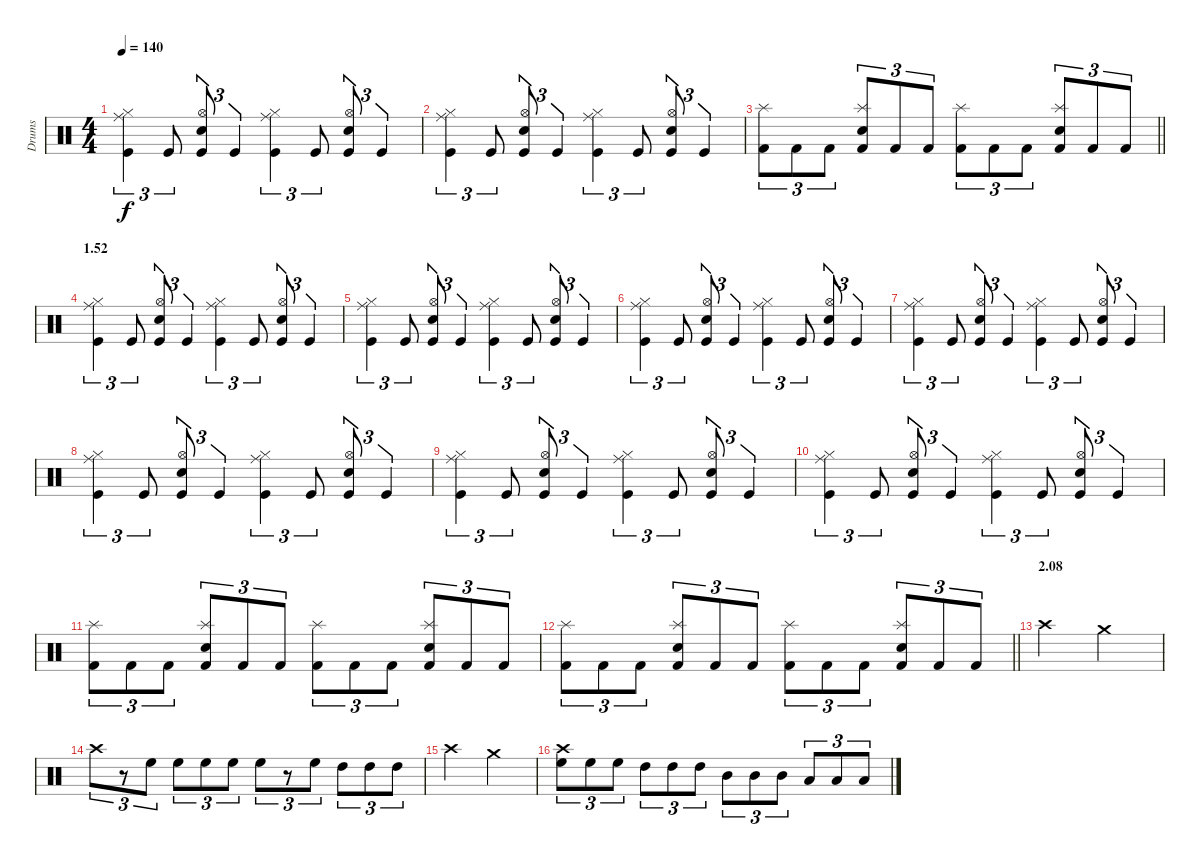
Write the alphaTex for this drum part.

\track ("Drums" "Drums") {instrument percussion}
\staff {score}
\articulation defaults
\ts (4 4)
\tempo 140
\clef neutral
\ks c
("Hi-Hat (closed)" "Ride (middle)" "Kick (hit)").4{tu (3 2) dy f} "Kick (hit)".8{tu (3 2)} ("Hi-Hat (open)" "Electric Snare (hit)" "Kick (hit)").8{tu (3 2)} "Kick (hit)".4{tu (3 2)} ("Hi-Hat (closed)" "Ride (middle)" "Kick (hit)").4{tu (3 2)} "Kick (hit)".8{tu (3 2)} ("Hi-Hat (open)" "Electric Snare (hit)" "Kick (hit)").8{tu (3 2)} "Kick (hit)".4{tu (3 2)} |
("Hi-Hat (closed)" "Ride (middle)" "Kick (hit)").4{tu (3 2)} "Kick (hit)".8{tu (3 2)} ("Hi-Hat (open)" "Electric Snare (hit)" "Kick (hit)").8{tu (3 2)} "Kick (hit)".4{tu (3 2)} ("Hi-Hat (closed)" "Ride (middle)" "Kick (hit)").4{tu (3 2)} "Kick (hit)".8{tu (3 2)} ("Hi-Hat (open)" "Electric Snare (hit)" "Kick (hit)").8{tu (3 2)} "Kick (hit)".4{tu (3 2)} |
\barLineRight lightlight
("Splash (hit)" "Kick (hit) 2").8{tu (3 2)} "Kick (hit) 2".8{tu (3 2)} "Kick (hit) 2".8{tu (3 2)} ("Splash (hit)" "Electric Snare (hit)" "Kick (hit) 2").8{tu (3 2)} "Kick (hit) 2".8{tu (3 2)} "Kick (hit) 2".8{tu (3 2)} ("Splash (hit)" "Kick (hit) 2").8{tu (3 2)} "Kick (hit) 2".8{tu (3 2)} "Kick (hit) 2".8{tu (3 2)} ("Splash (hit)" "Electric Snare (hit)" "Kick (hit) 2").8{tu (3 2)} "Kick (hit) 2".8{tu (3 2)} "Kick (hit) 2".8{tu (3 2)} |
\section ("" "1.52")
("Hi-Hat (closed)" "Ride (middle)" "Kick (hit)").4{tu (3 2)} "Kick (hit)".8{tu (3 2)} ("Hi-Hat (open)" "Electric Snare (hit)" "Kick (hit)").8{tu (3 2)} "Kick (hit)".4{tu (3 2)} ("Hi-Hat (closed)" "Ride (middle)" "Kick (hit)").4{tu (3 2)} "Kick (hit)".8{tu (3 2)} ("Hi-Hat (open)" "Electric Snare (hit)" "Kick (hit)").8{tu (3 2)} "Kick (hit)".4{tu (3 2)} |
("Hi-Hat (closed)" "Ride (middle)" "Kick (hit)").4{tu (3 2)} "Kick (hit)".8{tu (3 2)} ("Hi-Hat (open)" "Electric Snare (hit)" "Kick (hit)").8{tu (3 2)} "Kick (hit)".4{tu (3 2)} ("Hi-Hat (closed)" "Ride (middle)" "Kick (hit)").4{tu (3 2)} "Kick (hit)".8{tu (3 2)} ("Hi-Hat (open)" "Electric Snare (hit)" "Kick (hit)").8{tu (3 2)} "Kick (hit)".4{tu (3 2)} |
("Hi-Hat (closed)" "Ride (middle)" "Kick (hit)").4{tu (3 2)} "Kick (hit)".8{tu (3 2)} ("Hi-Hat (open)" "Electric Snare (hit)" "Kick (hit)").8{tu (3 2)} "Kick (hit)".4{tu (3 2)} ("Hi-Hat (closed)" "Ride (middle)" "Kick (hit)").4{tu (3 2)} "Kick (hit)".8{tu (3 2)} ("Hi-Hat (open)" "Electric Snare (hit)" "Kick (hit)").8{tu (3 2)} "Kick (hit)".4{tu (3 2)} |
("Hi-Hat (closed)" "Ride (middle)" "Kick (hit)").4{tu (3 2)} "Kick (hit)".8{tu (3 2)} ("Hi-Hat (open)" "Electric Snare (hit)" "Kick (hit)").8{tu (3 2)} "Kick (hit)".4{tu (3 2)} ("Hi-Hat (closed)" "Ride (middle)" "Kick (hit)").4{tu (3 2)} "Kick (hit)".8{tu (3 2)} ("Hi-Hat (open)" "Electric Snare (hit)" "Kick (hit)").8{tu (3 2)} "Kick (hit)".4{tu (3 2)} |
("Hi-Hat (closed)" "Ride (middle)" "Kick (hit)").4{tu (3 2)} "Kick (hit)".8{tu (3 2)} ("Hi-Hat (open)" "Electric Snare (hit)" "Kick (hit)").8{tu (3 2)} "Kick (hit)".4{tu (3 2)} ("Hi-Hat (closed)" "Ride (middle)" "Kick (hit)").4{tu (3 2)} "Kick (hit)".8{tu (3 2)} ("Hi-Hat (open)" "Electric Snare (hit)" "Kick (hit)").8{tu (3 2)} "Kick (hit)".4{tu (3 2)} |
("Hi-Hat (closed)" "Ride (middle)" "Kick (hit)").4{tu (3 2)} "Kick (hit)".8{tu (3 2)} ("Hi-Hat (open)" "Electric Snare (hit)" "Kick (hit)").8{tu (3 2)} "Kick (hit)".4{tu (3 2)} ("Hi-Hat (closed)" "Ride (middle)" "Kick (hit)").4{tu (3 2)} "Kick (hit)".8{tu (3 2)} ("Hi-Hat (open)" "Electric Snare (hit)" "Kick (hit)").8{tu (3 2)} "Kick (hit)".4{tu (3 2)} |
("Hi-Hat (closed)" "Ride (middle)" "Kick (hit)").4{tu (3 2)} "Kick (hit)".8{tu (3 2)} ("Hi-Hat (open)" "Electric Snare (hit)" "Kick (hit)").8{tu (3 2)} "Kick (hit)".4{tu (3 2)} ("Hi-Hat (closed)" "Ride (middle)" "Kick (hit)").4{tu (3 2)} "Kick (hit)".8{tu (3 2)} ("Hi-Hat (open)" "Electric Snare (hit)" "Kick (hit)").8{tu (3 2)} "Kick (hit)".4{tu (3 2)} |
("Splash (hit)" "Kick (hit) 2").8{tu (3 2)} "Kick (hit) 2".8{tu (3 2)} "Kick (hit) 2".8{tu (3 2)} ("Splash (hit)" "Electric Snare (hit)" "Kick (hit) 2").8{tu (3 2)} "Kick (hit) 2".8{tu (3 2)} "Kick (hit) 2".8{tu (3 2)} ("Splash (hit)" "Kick (hit) 2").8{tu (3 2)} "Kick (hit) 2".8{tu (3 2)} "Kick (hit) 2".8{tu (3 2)} ("Splash (hit)" "Electric Snare (hit)" "Kick (hit) 2").8{tu (3 2)} "Kick (hit) 2".8{tu (3 2)} "Kick (hit) 2".8{tu (3 2)} |
\barLineRight lightlight
("Splash (hit)" "Kick (hit) 2").8{tu (3 2)} "Kick (hit) 2".8{tu (3 2)} "Kick (hit) 2".8{tu (3 2)} ("Splash (hit)" "Electric Snare (hit)" "Kick (hit) 2").8{tu (3 2)} "Kick (hit) 2".8{tu (3 2)} "Kick (hit) 2".8{tu (3 2)} ("Splash (hit)" "Kick (hit) 2").8{tu (3 2)} "Kick (hit) 2".8{tu (3 2)} "Kick (hit) 2".8{tu (3 2)} ("Splash (hit)" "Electric Snare (hit)" "Kick (hit) 2").8{tu (3 2)} "Kick (hit) 2".8{tu (3 2)} "Kick (hit) 2".8{tu (3 2)} |
\section ("" "2.08")
"Crash high (hit)".2 "Crash medium (hit)".2 |
"Crash high (hit)".8{tu (3 2)} r.8{tu (3 2)} "High Floor Tom (hit)".8{tu (3 2)} "High Floor Tom (hit)".8{tu (3 2)} "High Floor Tom (hit)".8{tu (3 2)} "High Floor Tom (hit)".8{tu (3 2)} "High Floor Tom (hit)".8{tu (3 2)} r.8{tu (3 2)} "High Floor Tom (hit)".8{tu (3 2)} "High Tom (hit)".8{tu (3 2)} "High Tom (hit)".8{tu (3 2)} "High Tom (hit)".8{tu (3 2)} |
"Crash high (hit)".2 "Crash medium (hit)".2 |
("Crash high (hit)" "High Floor Tom (hit)").8{tu (3 2)} "High Floor Tom (hit)".8{tu (3 2)} "High Floor Tom (hit)".8{tu (3 2)} "High Tom (hit)".8{tu (3 2)} "High Tom (hit)".8{tu (3 2)} "High Tom (hit)".8{tu (3 2)} "Mid Tom (hit)".8{tu (3 2)} "Mid Tom (hit)".8{tu (3 2)} "Mid Tom (hit)".8{tu (3 2)} "Low Tom (hit)".8{tu (3 2)} "Low Tom (hit)".8{tu (3 2)} "Low Tom (hit)".8{tu (3 2)}
